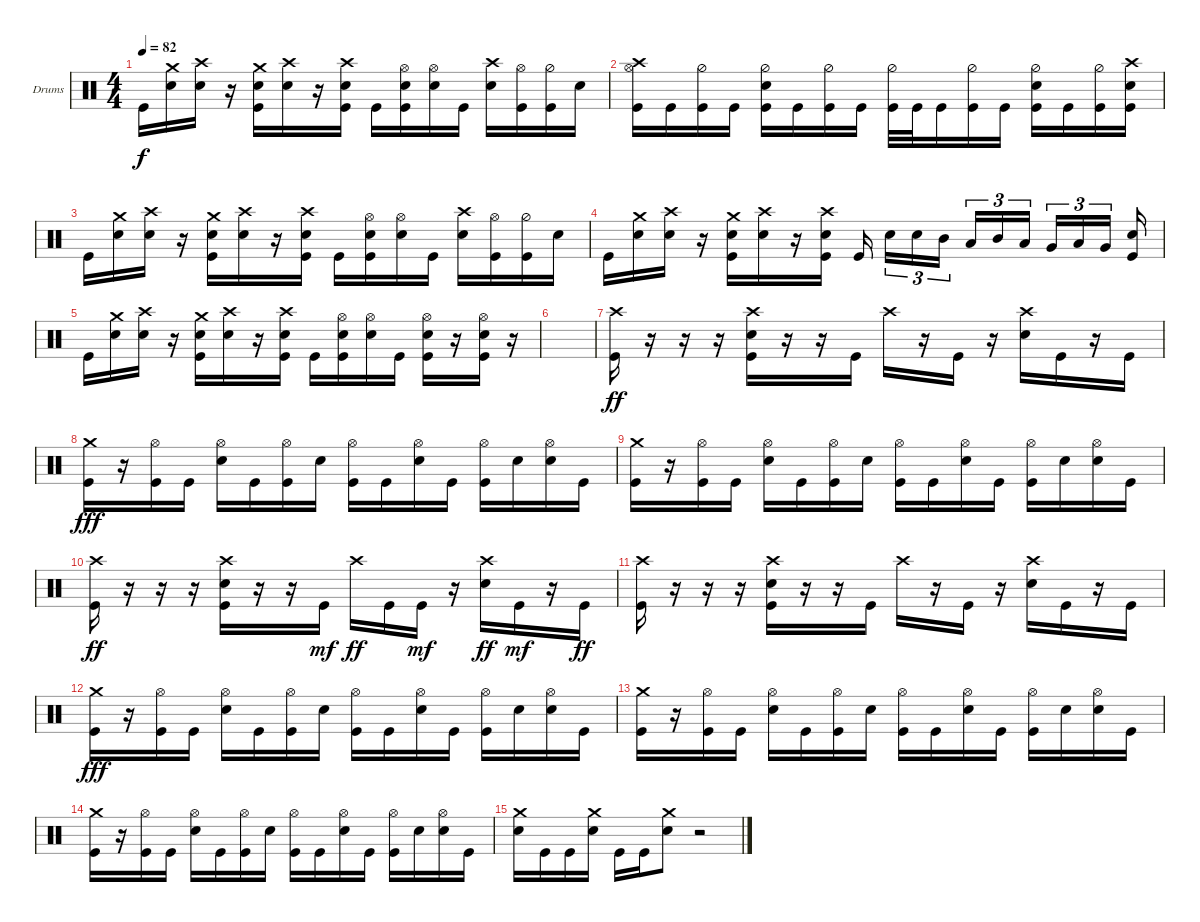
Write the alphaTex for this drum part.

\bracketExtendMode groupsimilarinstruments
\firstSystemTrackNameOrientation horizontal
\otherSystemsTrackNameOrientation horizontal
\track ("Kaleb - Drums" "Drums") {instrument percussion}
\staff {score}
\articulation defaults
\ts (4 4)
\tempo 82
\clef neutral
\ks c "Kick (hit)".16{dy f}
("Snare (hit) 2" "Crash medium (hit)").16 ("Snare (hit) 2" "Crash high (hit)").16 r.16 ("Snare (hit) 2" "Crash medium (hit)" "Kick (hit)").16 ("Snare (hit) 2" "Crash high (hit)").16 r.16 ("Snare (hit) 2" "Crash high (hit)" "Kick (hit)").16 "Kick (hit)".16 ("Snare (hit) 2" "Hi-Hat (open)" "Kick (hit)").16 ("Snare (hit) 2" "Hi-Hat (open)").16 "Kick (hit)".16 ("Snare (hit) 2" "Crash high (hit)").16 ("Kick (hit)" "Hi-Hat (open)").16 ("Kick (hit)" "Hi-Hat (half)").16 "Snare (hit) 2".16 |
("Kick (hit)" "Hi-Hat (open)" "Crash high (hit)").16 "Kick (hit)".16 ("Kick (hit)" "Hi-Hat (half)").16 "Kick (hit)".16 ("Kick (hit)" "Snare (hit) 2" "Hi-Hat (half)").16 "Kick (hit)".16 ("Kick (hit)" "Hi-Hat (half)").16 "Kick (hit)".16 ("Kick (hit)" "Hi-Hat (half)").32 "Kick (hit)".32 "Kick (hit)".16 ("Kick (hit)" "Hi-Hat (half)").16 "Kick (hit)".16 ("Kick (hit)" "Snare (hit) 2" "Hi-Hat (half)").16 "Kick (hit)".16 ("Kick (hit)" "Hi-Hat (half)").16 ("Kick (hit)" "Snare (hit) 2" "Crash high (hit)").16 |
"Kick (hit)".16 ("Snare (hit) 2" "Crash medium (hit)").16 ("Snare (hit) 2" "Crash high (hit)").16 r.16 ("Snare (hit) 2" "Crash medium (hit)" "Kick (hit)").16 ("Snare (hit) 2" "Crash high (hit)").16 r.16 ("Snare (hit) 2" "Crash high (hit)" "Kick (hit)").16 "Kick (hit)".16 ("Snare (hit) 2" "Hi-Hat (open)" "Kick (hit)").16 ("Snare (hit) 2" "Hi-Hat (open)").16 "Kick (hit)".16 ("Snare (hit) 2" "Crash high (hit)").16 ("Kick (hit)" "Hi-Hat (open)").16 ("Kick (hit)" "Hi-Hat (half)").16 "Snare (hit) 2".16 |
"Kick (hit)".16 ("Snare (hit) 2" "Crash medium (hit)").16 ("Snare (hit) 2" "Crash high (hit)").16 r.16 ("Snare (hit) 2" "Crash medium (hit)" "Kick (hit)").16 ("Snare (hit) 2" "Crash high (hit)").16 r.16 ("Snare (hit) 2" "Crash high (hit)" "Kick (hit)").16 "Kick (hit)".16 "Snare (hit) 2".16{tu (3 2)} "Snare (hit) 2".16{tu (3 2)} "Mid Tom (hit)".16{tu (3 2)} "Low Tom (hit)".16{tu (3 2)} "Mid Tom (hit)".16{tu (3 2)} "Low Tom (hit)".16{tu (3 2)} "Very Low Tom (hit)".16{tu (3 2)} "Low Tom (hit)".16{tu (3 2)} "Very Low Tom (hit)".16{tu (3 2)} ("Kick (hit)" "Snare (hit) 2").16 |
"Kick (hit)".16 ("Snare (hit) 2" "Crash medium (hit)").16 ("Snare (hit) 2" "Crash high (hit)").16 r.16 ("Snare (hit) 2" "Crash medium (hit)" "Kick (hit)").16 ("Snare (hit) 2" "Crash high (hit)").16 r.16 ("Snare (hit) 2" "Crash high (hit)" "Kick (hit)").16 "Kick (hit)".16 ("Snare (hit) 2" "Hi-Hat (open)" "Kick (hit)").16 ("Snare (hit) 2" "Hi-Hat (open)").16 "Kick (hit)".16 ("Hi-Hat (open)" "Snare (hit) 2" "Kick (hit)").16 r.16 ("Hi-Hat (open)" "Snare (hit) 2" "Kick (hit)").16 r.16 |
|
("Kick (hit)" "Crash high (hit)").16{dy ff} r.16 r.16 r.16 ("Kick (hit)" "Crash high (hit)" "Snare (hit) 2").16 r.16 r.16 "Kick (hit)".16 "Crash high (hit)".16 r.16 "Kick (hit)".16 r.16 ("Crash high (hit)" "Snare (hit) 2").16 "Kick (hit)".16 r.16 "Kick (hit)".16 |
("Crash medium (hit)" "Kick (hit)").16{dy fff} r.16 ("Kick (hit)" "Hi-Hat (open)").16 "Kick (hit)".16 ("Snare (hit) 2" "Hi-Hat (open)").16 "Kick (hit)".16 ("Kick (hit)" "Hi-Hat (open)").16 "Snare (hit) 2".16 ("Kick (hit)" "Hi-Hat (open)").16 "Kick (hit)".16 ("Snare (hit) 2" "Hi-Hat (open)").16 "Kick (hit)".16 ("Kick (hit)" "Hi-Hat (open)").16 "Snare (hit) 2".16 ("Snare (hit) 2" "Hi-Hat (open)").16 "Kick (hit)".16 |
("Crash medium (hit)" "Kick (hit)").16 r.16 ("Kick (hit)" "Hi-Hat (open)").16 "Kick (hit)".16 ("Snare (hit) 2" "Hi-Hat (open)").16 "Kick (hit)".16 ("Kick (hit)" "Hi-Hat (open)").16 "Snare (hit) 2".16 ("Kick (hit)" "Hi-Hat (open)").16 "Kick (hit)".16 ("Snare (hit) 2" "Hi-Hat (open)").16 "Kick (hit)".16 ("Kick (hit)" "Hi-Hat (open)").16 "Snare (hit) 2".16 ("Snare (hit) 2" "Hi-Hat (open)").16 "Kick (hit)".16 |
("Kick (hit)" "Crash high (hit)").16{dy ff} r.16 r.16 r.16 ("Kick (hit)" "Snare (hit) 2" "Crash high (hit)").16 r.16 r.16 "Kick (hit)".16{dy mf} "Crash high (hit)".16{dy ff} "Kick (hit)".16 "Kick (hit)".16{dy mf} r.16 ("Snare (hit) 2" "Crash high (hit)").16{dy ff} "Kick (hit)".16{dy mf} r.16 "Kick (hit)".16{dy ff} |
("Kick (hit)" "Crash high (hit)").16 r.16 r.16 r.16 ("Kick (hit)" "Crash high (hit)" "Snare (hit) 2").16 r.16 r.16 "Kick (hit)".16 "Crash high (hit)".16 r.16 "Kick (hit)".16 r.16 ("Crash high (hit)" "Snare (hit) 2").16 "Kick (hit)".16 r.16 "Kick (hit)".16 |
("Crash medium (hit)" "Kick (hit)").16{dy fff} r.16 ("Kick (hit)" "Hi-Hat (open)").16 "Kick (hit)".16 ("Snare (hit) 2" "Hi-Hat (open)").16 "Kick (hit)".16 ("Kick (hit)" "Hi-Hat (open)").16 "Snare (hit) 2".16 ("Kick (hit)" "Hi-Hat (open)").16 "Kick (hit)".16 ("Snare (hit) 2" "Hi-Hat (open)").16 "Kick (hit)".16 ("Kick (hit)" "Hi-Hat (open)").16 "Snare (hit) 2".16 ("Snare (hit) 2" "Hi-Hat (open)").16 "Kick (hit)".16 |
("Crash medium (hit)" "Kick (hit)").16 r.16 ("Kick (hit)" "Hi-Hat (open)").16 "Kick (hit)".16 ("Snare (hit) 2" "Hi-Hat (open)").16 "Kick (hit)".16 ("Kick (hit)" "Hi-Hat (open)").16 "Snare (hit) 2".16 ("Kick (hit)" "Hi-Hat (open)").16 "Kick (hit)".16 ("Snare (hit) 2" "Hi-Hat (open)").16 "Kick (hit)".16 ("Kick (hit)" "Hi-Hat (open)").16 "Snare (hit) 2".16 ("Snare (hit) 2" "Hi-Hat (open)").16 "Kick (hit)".16 |
("Crash medium (hit)" "Kick (hit)").16 r.16 ("Kick (hit)" "Hi-Hat (open)").16 "Kick (hit)".16 ("Snare (hit) 2" "Hi-Hat (open)").16 "Kick (hit)".16 ("Kick (hit)" "Hi-Hat (open)").16 "Snare (hit) 2".16 ("Kick (hit)" "Hi-Hat (open)").16 "Kick (hit)".16 ("Snare (hit) 2" "Hi-Hat (open)").16 "Kick (hit)".16 ("Kick (hit)" "Hi-Hat (open)").16 "Snare (hit) 2".16 ("Snare (hit) 2" "Hi-Hat (open)").16 "Kick (hit)".16 |
("Crash medium (hit)" "Snare (hit) 2").16 "Kick (hit)".16 "Kick (hit)".16 ("Crash medium (hit)" "Snare (hit) 2").16 "Kick (hit)".16 "Kick (hit)".16 ("Crash medium (hit)" "Snare (hit) 2").8 r.2
